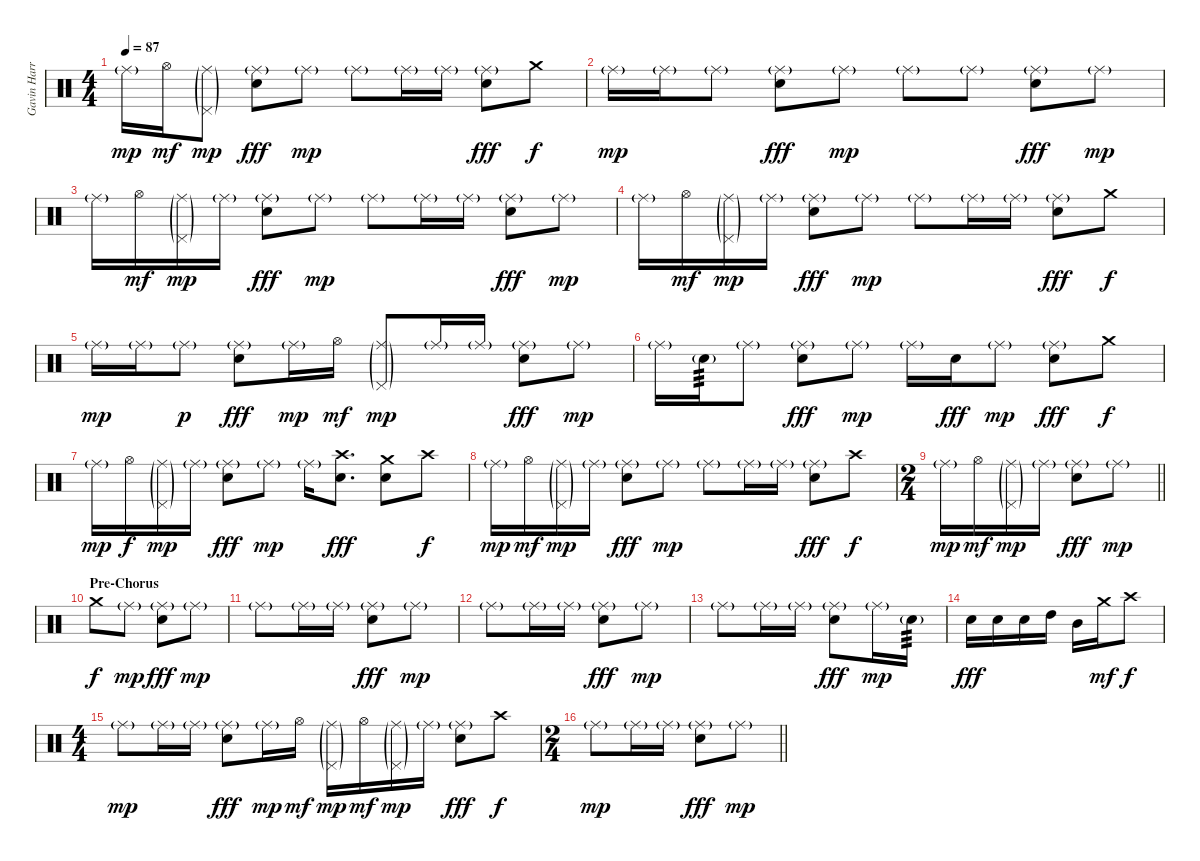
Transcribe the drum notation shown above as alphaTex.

\track ("Gavin Harrison Drums" "Gavin Harr") {instrument percussion}
\staff {score}
\articulation defaults
\ts (4 4)
\tempo 87
\clef neutral
\ks aminor "Ride (middle)"{g}.16{dy mp} "Hi-Hat (open)".16{dy mf}
("Ride (middle)"{g} "Pedal Hi-Hat (hit)"{g}).8{dy mp} ("Ride (middle)"{g} "Electric Snare (hit)").8{dy fff} "Ride (middle)"{g}.8{dy mp} "Ride (middle)"{g}.8 "Ride (middle)"{g}.16 "Ride (middle)"{g}.16 ("Ride (middle)"{g} "Electric Snare (hit)").8{dy fff} "Crash medium (hit)".8{dy f} |
"Ride (middle)"{g}.16{dy mp} "Ride (middle)"{g}.16 "Ride (middle)"{g}.8 ("Ride (middle)"{g} "Electric Snare (hit)").8{dy fff} "Ride (middle)"{g}.8{dy mp} "Ride (middle)"{g}.8 "Ride (middle)"{g}.8 ("Ride (middle)"{g} "Electric Snare (hit)").8{dy fff} "Ride (middle)"{g}.8{dy mp} |
"Ride (middle)"{g}.16 "Hi-Hat (open)".16{dy mf} ("Ride (middle)"{g} "Pedal Hi-Hat (hit)"{g}).16{dy mp} "Ride (middle)"{g}.16 ("Ride (middle)"{g} "Electric Snare (hit)").8{dy fff} "Ride (middle)"{g}.8{dy mp} "Ride (middle)"{g}.8 "Ride (middle)"{g}.16 "Ride (middle)"{g}.16 ("Ride (middle)"{g} "Electric Snare (hit)").8{dy fff} "Ride (middle)"{g}.8{dy mp} |
"Ride (middle)"{g}.16 "Hi-Hat (open)".16{dy mf} ("Ride (middle)"{g} "Pedal Hi-Hat (hit)"{g}).16{dy mp} "Ride (middle)"{g}.16 ("Ride (middle)"{g} "Electric Snare (hit)").8{dy fff} "Ride (middle)"{g}.8{dy mp} "Ride (middle)"{g}.8 "Ride (middle)"{g}.16 "Ride (middle)"{g}.16 ("Ride (middle)"{g} "Electric Snare (hit)").8{dy fff} "Crash medium (hit)".8{dy f} |
"Ride (middle)"{g}.16{dy mp} "Ride (middle)"{g}.16 "Ride (middle)"{g}.8{dy p} ("Ride (middle)"{g} "Electric Snare (hit)").8{dy fff} "Ride (middle)"{g}.16{dy mp} "Hi-Hat (open)".16{dy mf} ("Ride (middle)"{g} "Pedal Hi-Hat (hit)"{g}).8{dy mp} "Ride (middle)"{g}.16 "Ride (middle)"{g}.16 ("Ride (middle)"{g} "Electric Snare (hit)").8{dy fff} "Ride (middle)"{g}.8{dy mp} |
"Ride (middle)"{g}.16 "Electric Snare (hit)"{g}.16{tp 3} "Ride (middle)"{g}.8 ("Ride (middle)"{g} "Electric Snare (hit)").8{dy fff} "Ride (middle)"{g}.8{dy mp} "Ride (middle)"{g}.16 "Electric Snare (hit)".16{dy fff} "Ride (middle)"{g}.8{dy mp} ("Ride (middle)"{g} "Electric Snare (hit)").8{dy fff} "Crash medium (hit)".8{dy f} |
"Ride (middle)"{g}.16{dy mp} "Hi-Hat (open)".16{dy f} ("Ride (middle)"{g} "Pedal Hi-Hat (hit)"{g}).16{dy mp} "Ride (middle)"{g}.16 ("Ride (middle)"{g} "Electric Snare (hit)").8{dy fff} "Ride (middle)"{g}.8{dy mp} "Ride (middle)"{g}.16 ("Crash high (hit)" "Electric Snare (hit)").8{d dy fff} ("Crash medium (hit)" "Electric Snare (hit)").8 "Crash high (hit)".8{dy f} |
"Ride (middle)"{g}.16{dy mp} "Hi-Hat (open)".16{dy mf} ("Ride (middle)"{g} "Pedal Hi-Hat (hit)"{g}).16{dy mp} "Ride (middle)"{g}.16 ("Ride (middle)"{g} "Electric Snare (hit)").8{dy fff} "Ride (middle)"{g}.8{dy mp} "Ride (middle)"{g}.8 "Ride (middle)"{g}.16 "Ride (middle)"{g}.16 ("Ride (middle)"{g} "Electric Snare (hit)").8{dy fff} "Crash high (hit)".8{dy f} |
\ts (2 4)
\barLineRight lightlight "Ride (middle)"{g}.16{dy mp} "Hi-Hat (open)".16{dy mf}
("Ride (middle)"{g} "Pedal Hi-Hat (hit)"{g}).16{dy mp} "Ride (middle)"{g}.16 ("Ride (middle)"{g} "Electric Snare (hit)").8{dy fff} "Ride (middle)"{g}.8{dy mp} |
\section ("" "Pre-Chorus")
"Crash medium (hit)".8{dy f} "Ride (middle)"{g}.8{dy mp} ("Ride (middle)"{g} "Electric Snare (hit)").8{dy fff} "Ride (middle)"{g}.8{dy mp} |
"Ride (middle)"{g}.8 "Ride (middle)"{g}.16 "Ride (middle)"{g}.16 ("Ride (middle)"{g} "Electric Snare (hit)").8{dy fff} "Ride (middle)"{g}.8{dy mp} |
"Ride (middle)"{g}.8 "Ride (middle)"{g}.16 "Ride (middle)"{g}.16 ("Ride (middle)"{g} "Electric Snare (hit)").8{dy fff} "Ride (middle)"{g}.8{dy mp} |
"Ride (middle)"{g}.8 "Ride (middle)"{g}.16 "Ride (middle)"{g}.16 ("Ride (middle)"{g} "Electric Snare (hit)").8{dy fff} "Ride (middle)"{g}.16{dy mp} "Electric Snare (hit)"{g}.16{tp 3} |
"Electric Snare (hit)".16{dy fff} "Electric Snare (hit)".16 "Electric Snare (hit)".16 "High Tom (hit)".16 "Mid Tom (hit)".16 "Crash medium (hit)".16{dy mf} "Crash high (hit)".8{dy f} |
\ts (4 4)
"Ride (middle)"{g}.8{dy mp} "Ride (middle)"{g}.16 "Ride (middle)"{g}.16 ("Ride (middle)"{g} "Electric Snare (hit)").8{dy fff} "Ride (middle)"{g}.16{dy mp} "Hi-Hat (open)".16{dy mf} ("Ride (middle)"{g} "Pedal Hi-Hat (hit)"{g}).16{dy mp} "Hi-Hat (open)".16{dy mf} ("Ride (middle)"{g} "Pedal Hi-Hat (hit)"{g}).16{dy mp} "Ride (middle)"{g}.16 ("Ride (middle)"{g} "Electric Snare (hit)").8{dy fff} "Crash high (hit)".8{dy f} |
\ts (2 4)
\barLineRight lightlight "Ride (middle)"{g}.8{dy mp} "Ride (middle)"{g}.16 "Ride (middle)"{g}.16
("Ride (middle)"{g} "Electric Snare (hit)").8{dy fff} "Ride (middle)"{g}.8{dy mp}
